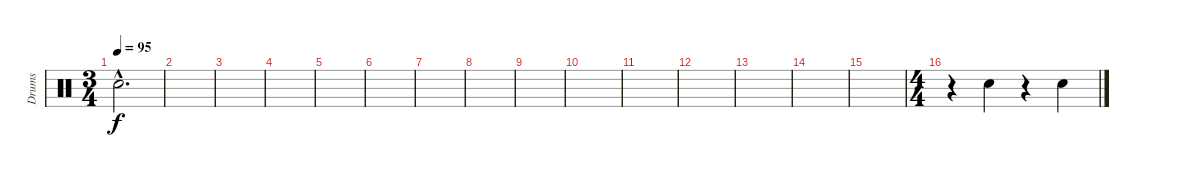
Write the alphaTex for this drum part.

\track ("Drums" "Drums") {instrument percussion}
\staff {score}
\articulation defaults
\ts (3 4)
\tempo 95
\clef neutral
\ks c "Snare (hit)"{hac t}.2{d dy f}
|
|
|
|
|
|
|
|
|
|
|
|
|
|
|
\ts (4 4)
r.4 "Electric Snare (hit)".4 r.4 "Electric Snare (hit)".4
